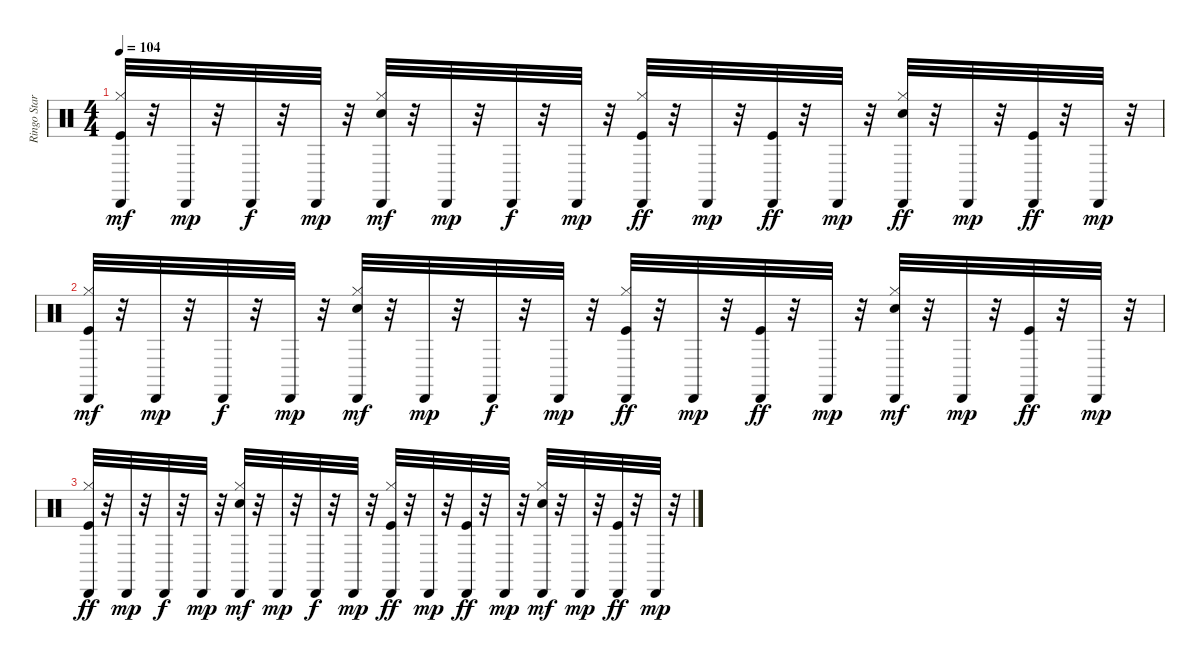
\track ("Ringo Starr - Drums" "Ringo Star") {instrument percussion}
\staff {score}
\articulation defaults
\ts (4 4)
\tempo 104
\clef neutral
\ks c
("Hi-Hat (closed)" "Kick (hit)" "Cabasa (hit)").32{dy mf} r.32 "Cabasa (hit)".32{dy mp} r.32 "Cabasa (hit)".32{dy f} r.32 "Cabasa (hit)".32{dy mp} r.32 ("Hi-Hat (closed)" "Snare (hit) 2" "Cabasa (hit)").32{dy mf} r.32 "Cabasa (hit)".32{dy mp} r.32 "Cabasa (hit)".32{dy f} r.32 "Cabasa (hit)".32{dy mp} r.32 ("Hi-Hat (closed)" "Cabasa (hit)" "Kick (hit)").32{dy ff} r.32 "Cabasa (hit)".32{dy mp} r.32 ("Kick (hit)" "Cabasa (hit)").32{dy ff} r.32 "Cabasa (hit)".32{dy mp} r.32 ("Hi-Hat (closed)" "Cabasa (hit)" "Snare (hit) 2").32{dy ff} r.32 "Cabasa (hit)".32{dy mp} r.32 ("Cabasa (hit)" "Kick (hit)").32{dy ff} r.32 "Cabasa (hit)".32{dy mp} r.32 |
("Hi-Hat (closed)" "Kick (hit)" "Cabasa (hit)").32{dy mf} r.32 "Cabasa (hit)".32{dy mp} r.32 "Cabasa (hit)".32{dy f} r.32 "Cabasa (hit)".32{dy mp} r.32 ("Hi-Hat (closed)" "Snare (hit) 2" "Cabasa (hit)").32{dy mf} r.32 "Cabasa (hit)".32{dy mp} r.32 "Cabasa (hit)".32{dy f} r.32 "Cabasa (hit)".32{dy mp} r.32 ("Hi-Hat (closed)" "Cabasa (hit)" "Kick (hit)").32{dy ff} r.32 "Cabasa (hit)".32{dy mp} r.32 ("Cabasa (hit)" "Kick (hit)").32{dy ff} r.32 "Cabasa (hit)".32{dy mp} r.32 ("Hi-Hat (closed)" "Snare (hit) 2" "Cabasa (hit)").32{dy mf} r.32 "Cabasa (hit)".32{dy mp} r.32 ("Kick (hit)" "Cabasa (hit)").32{dy ff} r.32 "Cabasa (hit)".32{dy mp} r.32 |
("Hi-Hat (closed)" "Cabasa (hit)" "Kick (hit)").32{dy ff} r.32 "Cabasa (hit)".32{dy mp} r.32 "Cabasa (hit)".32{dy f} r.32 "Cabasa (hit)".32{dy mp} r.32 ("Hi-Hat (closed)" "Snare (hit) 2" "Cabasa (hit)").32{dy mf} r.32 "Cabasa (hit)".32{dy mp} r.32 "Cabasa (hit)".32{dy f} r.32 "Cabasa (hit)".32{dy mp} r.32 ("Hi-Hat (closed)" "Cabasa (hit)" "Kick (hit)").32{dy ff} r.32 "Cabasa (hit)".32{dy mp} r.32 ("Kick (hit)" "Cabasa (hit)").32{dy ff} r.32 "Cabasa (hit)".32{dy mp} r.32 ("Hi-Hat (closed)" "Snare (hit) 2" "Cabasa (hit)").32{dy mf} r.32 "Cabasa (hit)".32{dy mp} r.32 ("Cabasa (hit)" "Kick (hit)").32{dy ff} r.32 "Cabasa (hit)".32{dy mp} r.32
